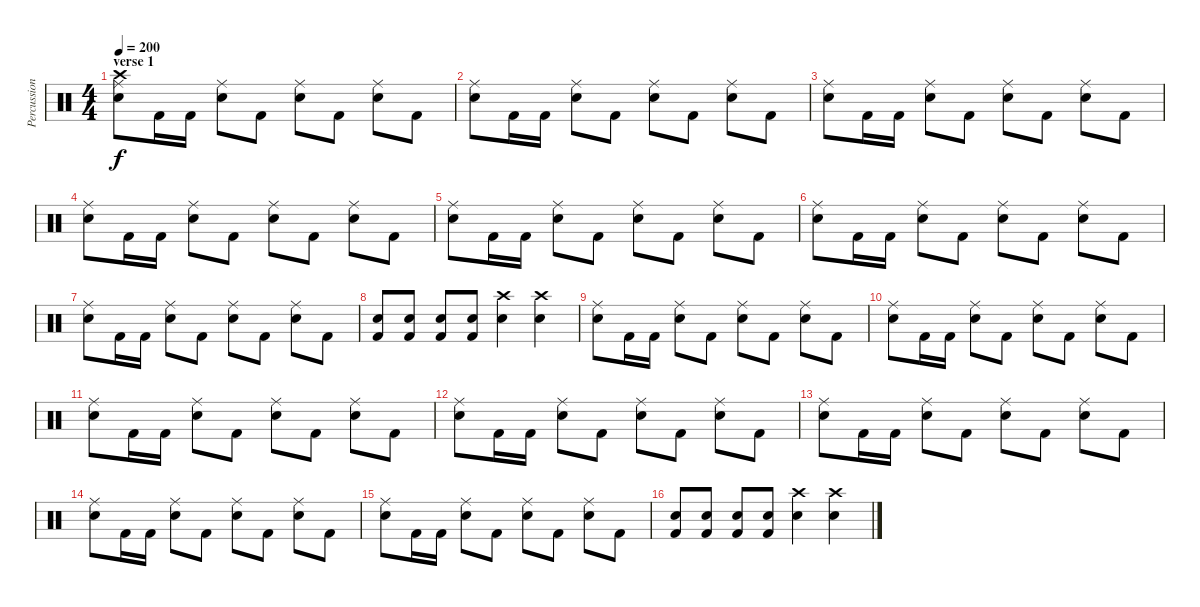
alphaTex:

\track ("Percussions" "Percussion") {instrument percussion}
\staff {score}
\articulation defaults
\ts (4 4)
\section ("" "verse 1")
\tempo 200
\clef neutral
\ks c
("Crash high (hit)" "Ride (middle)" "Electric Snare (hit)").8{dy f} "Kick (hit) 2".16 "Kick (hit) 2".16 ("Ride (middle)" "Electric Snare (hit)").8 "Kick (hit) 2".8 ("Ride (middle)" "Electric Snare (hit)").8 "Kick (hit) 2".8 ("Ride (middle)" "Electric Snare (hit)").8 "Kick (hit) 2".8 |
("Ride (middle)" "Electric Snare (hit)").8 "Kick (hit) 2".16 "Kick (hit) 2".16 ("Ride (middle)" "Electric Snare (hit)").8 "Kick (hit) 2".8 ("Ride (middle)" "Electric Snare (hit)").8 "Kick (hit) 2".8 ("Ride (middle)" "Electric Snare (hit)").8 "Kick (hit) 2".8 |
("Ride (middle)" "Electric Snare (hit)").8 "Kick (hit) 2".16 "Kick (hit) 2".16 ("Ride (middle)" "Electric Snare (hit)").8 "Kick (hit) 2".8 ("Ride (middle)" "Electric Snare (hit)").8 "Kick (hit) 2".8 ("Ride (middle)" "Electric Snare (hit)").8 "Kick (hit) 2".8 |
("Ride (middle)" "Electric Snare (hit)").8 "Kick (hit) 2".16 "Kick (hit) 2".16 ("Ride (middle)" "Electric Snare (hit)").8 "Kick (hit) 2".8 ("Ride (middle)" "Electric Snare (hit)").8 "Kick (hit) 2".8 ("Ride (middle)" "Electric Snare (hit)").8 "Kick (hit) 2".8 |
("Ride (middle)" "Electric Snare (hit)").8 "Kick (hit) 2".16 "Kick (hit) 2".16 ("Ride (middle)" "Electric Snare (hit)").8 "Kick (hit) 2".8 ("Ride (middle)" "Electric Snare (hit)").8 "Kick (hit) 2".8 ("Ride (middle)" "Electric Snare (hit)").8 "Kick (hit) 2".8 |
("Ride (middle)" "Electric Snare (hit)").8 "Kick (hit) 2".16 "Kick (hit) 2".16 ("Ride (middle)" "Electric Snare (hit)").8 "Kick (hit) 2".8 ("Ride (middle)" "Electric Snare (hit)").8 "Kick (hit) 2".8 ("Ride (middle)" "Electric Snare (hit)").8 "Kick (hit) 2".8 |
("Ride (middle)" "Electric Snare (hit)").8 "Kick (hit) 2".16 "Kick (hit) 2".16 ("Ride (middle)" "Electric Snare (hit)").8 "Kick (hit) 2".8 ("Ride (middle)" "Electric Snare (hit)").8 "Kick (hit) 2".8 ("Ride (middle)" "Electric Snare (hit)").8 "Kick (hit) 2".8 |
("Electric Snare (hit)" "Kick (hit) 2").8 ("Electric Snare (hit)" "Kick (hit) 2").8 ("Electric Snare (hit)" "Kick (hit) 2").8 ("Electric Snare (hit)" "Kick (hit) 2").8 ("Crash high (hit)" "Electric Snare (hit)").4 ("Crash high (hit)" "Electric Snare (hit)").4 |
("Ride (middle)" "Electric Snare (hit)").8 "Kick (hit) 2".16 "Kick (hit) 2".16 ("Ride (middle)" "Electric Snare (hit)").8 "Kick (hit) 2".8 ("Ride (middle)" "Electric Snare (hit)").8 "Kick (hit) 2".8 ("Ride (middle)" "Electric Snare (hit)").8 "Kick (hit) 2".8 |
("Ride (middle)" "Electric Snare (hit)").8 "Kick (hit) 2".16 "Kick (hit) 2".16 ("Ride (middle)" "Electric Snare (hit)").8 "Kick (hit) 2".8 ("Ride (middle)" "Electric Snare (hit)").8 "Kick (hit) 2".8 ("Ride (middle)" "Electric Snare (hit)").8 "Kick (hit) 2".8 |
("Ride (middle)" "Electric Snare (hit)").8 "Kick (hit) 2".16 "Kick (hit) 2".16 ("Ride (middle)" "Electric Snare (hit)").8 "Kick (hit) 2".8 ("Ride (middle)" "Electric Snare (hit)").8 "Kick (hit) 2".8 ("Ride (middle)" "Electric Snare (hit)").8 "Kick (hit) 2".8 |
("Ride (middle)" "Electric Snare (hit)").8 "Kick (hit) 2".16 "Kick (hit) 2".16 ("Ride (middle)" "Electric Snare (hit)").8 "Kick (hit) 2".8 ("Ride (middle)" "Electric Snare (hit)").8 "Kick (hit) 2".8 ("Ride (middle)" "Electric Snare (hit)").8 "Kick (hit) 2".8 |
("Ride (middle)" "Electric Snare (hit)").8 "Kick (hit) 2".16 "Kick (hit) 2".16 ("Ride (middle)" "Electric Snare (hit)").8 "Kick (hit) 2".8 ("Ride (middle)" "Electric Snare (hit)").8 "Kick (hit) 2".8 ("Ride (middle)" "Electric Snare (hit)").8 "Kick (hit) 2".8 |
("Ride (middle)" "Electric Snare (hit)").8 "Kick (hit) 2".16 "Kick (hit) 2".16 ("Ride (middle)" "Electric Snare (hit)").8 "Kick (hit) 2".8 ("Ride (middle)" "Electric Snare (hit)").8 "Kick (hit) 2".8 ("Ride (middle)" "Electric Snare (hit)").8 "Kick (hit) 2".8 |
("Ride (middle)" "Electric Snare (hit)").8 "Kick (hit) 2".16 "Kick (hit) 2".16 ("Ride (middle)" "Electric Snare (hit)").8 "Kick (hit) 2".8 ("Ride (middle)" "Electric Snare (hit)").8 "Kick (hit) 2".8 ("Ride (middle)" "Electric Snare (hit)").8 "Kick (hit) 2".8 |
("Electric Snare (hit)" "Kick (hit) 2").8 ("Electric Snare (hit)" "Kick (hit) 2").8 ("Electric Snare (hit)" "Kick (hit) 2").8 ("Electric Snare (hit)" "Kick (hit) 2").8 ("Crash high (hit)" "Electric Snare (hit)").4 ("Crash high (hit)" "Electric Snare (hit)").4
